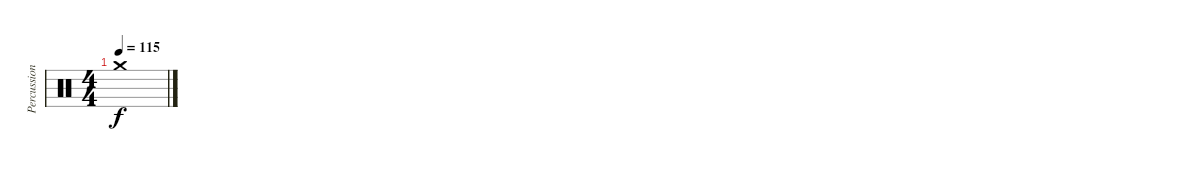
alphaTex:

\track ("Percussion" "Percussion") {instrument percussion}
\staff {score}
\articulation defaults
\ts (4 4)
\tempo 115
\clef neutral
\ks c "Crash medium (hit)".1{dy f}
